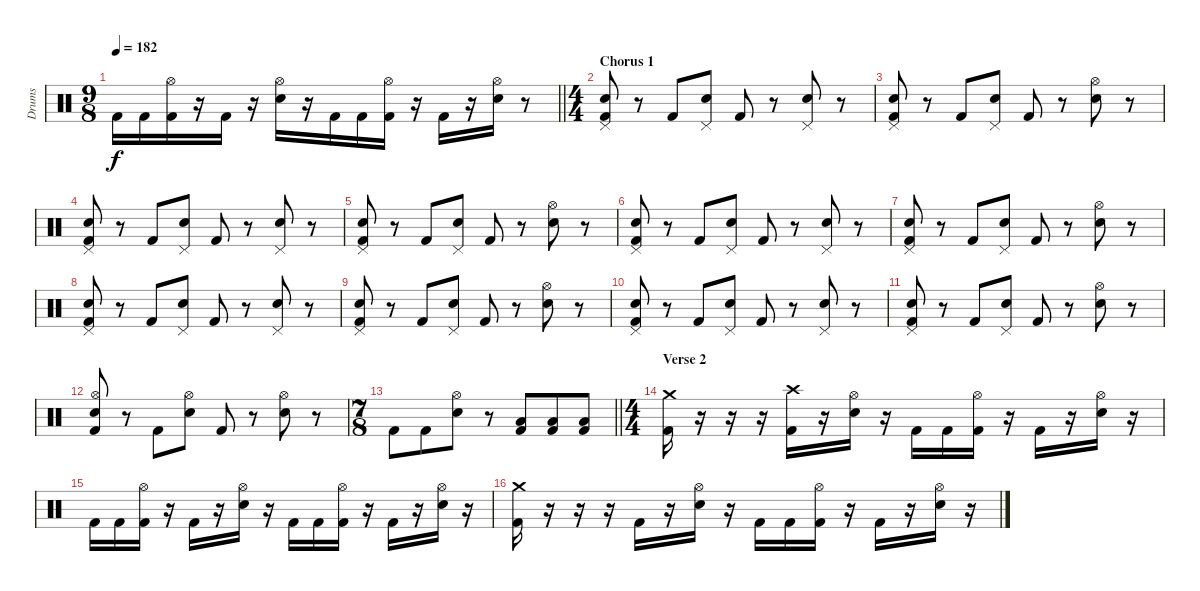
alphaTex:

\track ("Drums" "Drums") {instrument percussion}
\staff {score}
\articulation defaults
\ts (9 8)
\tempo 182
\clef neutral
\barLineRight lightlight
\ks c "Kick (hit) 2".16{dy f} "Kick (hit) 2".16
("Hi-Hat (open)" "Kick (hit) 2").16 r.16 "Kick (hit) 2".16 r.16 ("Hi-Hat (open)" "Electric Snare (hit)").16 r.16 "Kick (hit) 2".16 "Kick (hit) 2".16 ("Hi-Hat (open)" "Kick (hit) 2").16 r.16 "Kick (hit) 2".16 r.16 ("Hi-Hat (open)" "Electric Snare (hit)").16 r.8 |
\ts (4 4)
\section ("" "Chorus 1")
("Pedal Hi-Hat (hit)" "Electric Snare (hit)" "Kick (hit) 2").8 r.8 "Kick (hit) 2".8 ("Pedal Hi-Hat (hit)" "Electric Snare (hit)").8 "Kick (hit) 2".8 r.8 ("Pedal Hi-Hat (hit)" "Electric Snare (hit)").8 r.8 |
("Pedal Hi-Hat (hit)" "Electric Snare (hit)" "Kick (hit) 2").8 r.8 "Kick (hit) 2".8 ("Pedal Hi-Hat (hit)" "Electric Snare (hit)").8 "Kick (hit) 2".8 r.8 ("Hi-Hat (open)" "Electric Snare (hit)").8 r.8 |
("Pedal Hi-Hat (hit)" "Electric Snare (hit)" "Kick (hit) 2").8 r.8 "Kick (hit) 2".8 ("Pedal Hi-Hat (hit)" "Electric Snare (hit)").8 "Kick (hit) 2".8 r.8 ("Pedal Hi-Hat (hit)" "Electric Snare (hit)").8 r.8 |
("Pedal Hi-Hat (hit)" "Electric Snare (hit)" "Kick (hit) 2").8 r.8 "Kick (hit) 2".8 ("Pedal Hi-Hat (hit)" "Electric Snare (hit)").8 "Kick (hit) 2".8 r.8 ("Hi-Hat (open)" "Electric Snare (hit)").8 r.8 |
("Pedal Hi-Hat (hit)" "Electric Snare (hit)" "Kick (hit) 2").8 r.8 "Kick (hit) 2".8 ("Pedal Hi-Hat (hit)" "Electric Snare (hit)").8 "Kick (hit) 2".8 r.8 ("Pedal Hi-Hat (hit)" "Electric Snare (hit)").8 r.8 |
("Pedal Hi-Hat (hit)" "Electric Snare (hit)" "Kick (hit) 2").8 r.8 "Kick (hit) 2".8 ("Pedal Hi-Hat (hit)" "Electric Snare (hit)").8 "Kick (hit) 2".8 r.8 ("Hi-Hat (open)" "Electric Snare (hit)").8 r.8 |
("Pedal Hi-Hat (hit)" "Electric Snare (hit)" "Kick (hit) 2").8 r.8 "Kick (hit) 2".8 ("Pedal Hi-Hat (hit)" "Electric Snare (hit)").8 "Kick (hit) 2".8 r.8 ("Pedal Hi-Hat (hit)" "Electric Snare (hit)").8 r.8 |
("Pedal Hi-Hat (hit)" "Electric Snare (hit)" "Kick (hit) 2").8 r.8 "Kick (hit) 2".8 ("Pedal Hi-Hat (hit)" "Electric Snare (hit)").8 "Kick (hit) 2".8 r.8 ("Hi-Hat (open)" "Electric Snare (hit)").8 r.8 |
("Pedal Hi-Hat (hit)" "Electric Snare (hit)" "Kick (hit) 2").8 r.8 "Kick (hit) 2".8 ("Pedal Hi-Hat (hit)" "Electric Snare (hit)").8 "Kick (hit) 2".8 r.8 ("Pedal Hi-Hat (hit)" "Electric Snare (hit)").8 r.8 |
("Pedal Hi-Hat (hit)" "Electric Snare (hit)" "Kick (hit) 2").8 r.8 "Kick (hit) 2".8 ("Pedal Hi-Hat (hit)" "Electric Snare (hit)").8 "Kick (hit) 2".8 r.8 ("Hi-Hat (open)" "Electric Snare (hit)").8 r.8 |
("Hi-Hat (open)" "Electric Snare (hit)" "Kick (hit) 2").8 r.8 "Kick (hit) 2".8 ("Hi-Hat (open)" "Electric Snare (hit)").8 "Kick (hit) 2".8 r.8 ("Hi-Hat (open)" "Electric Snare (hit)").8 r.8 |
\ts (7 8)
\barLineRight lightlight "Kick (hit) 2".8 "Kick (hit) 2".8
("Hi-Hat (open)" "Electric Snare (hit)").8 r.8 ("Low Tom (hit)" "Kick (hit) 2").8 ("Low Tom (hit)" "Kick (hit) 2").8 ("Low Tom (hit)" "Kick (hit) 2").8 |
\ts (4 4)
\section ("" "Verse 2")
("Crash medium (hit)" "Kick (hit) 2").16 r.16 r.16 r.16 ("Crash high (hit)" "Kick (hit) 2").16 r.16 ("Hi-Hat (open)" "Electric Snare (hit)").16 r.16 "Kick (hit) 2".16 "Kick (hit) 2".16 ("Hi-Hat (open)" "Kick (hit) 2").16 r.16 "Kick (hit) 2".16 r.16 ("Hi-Hat (open)" "Electric Snare (hit)").16 r.16 |
"Kick (hit) 2".16 "Kick (hit) 2".16 ("Hi-Hat (open)" "Kick (hit) 2").16 r.16 "Kick (hit) 2".16 r.16 ("Hi-Hat (open)" "Electric Snare (hit)").16 r.16 "Kick (hit) 2".16 "Kick (hit) 2".16 ("Hi-Hat (open)" "Kick (hit) 2").16 r.16 "Kick (hit) 2".16 r.16 ("Hi-Hat (open)" "Electric Snare (hit)").16 r.16 |
("Crash medium (hit)" "Kick (hit) 2").16 r.16 r.16 r.16 "Kick (hit) 2".16 r.16 ("Hi-Hat (open)" "Electric Snare (hit)").16 r.16 "Kick (hit) 2".16 "Kick (hit) 2".16 ("Hi-Hat (open)" "Kick (hit) 2").16 r.16 "Kick (hit) 2".16 r.16 ("Hi-Hat (open)" "Electric Snare (hit)").16 r.16
